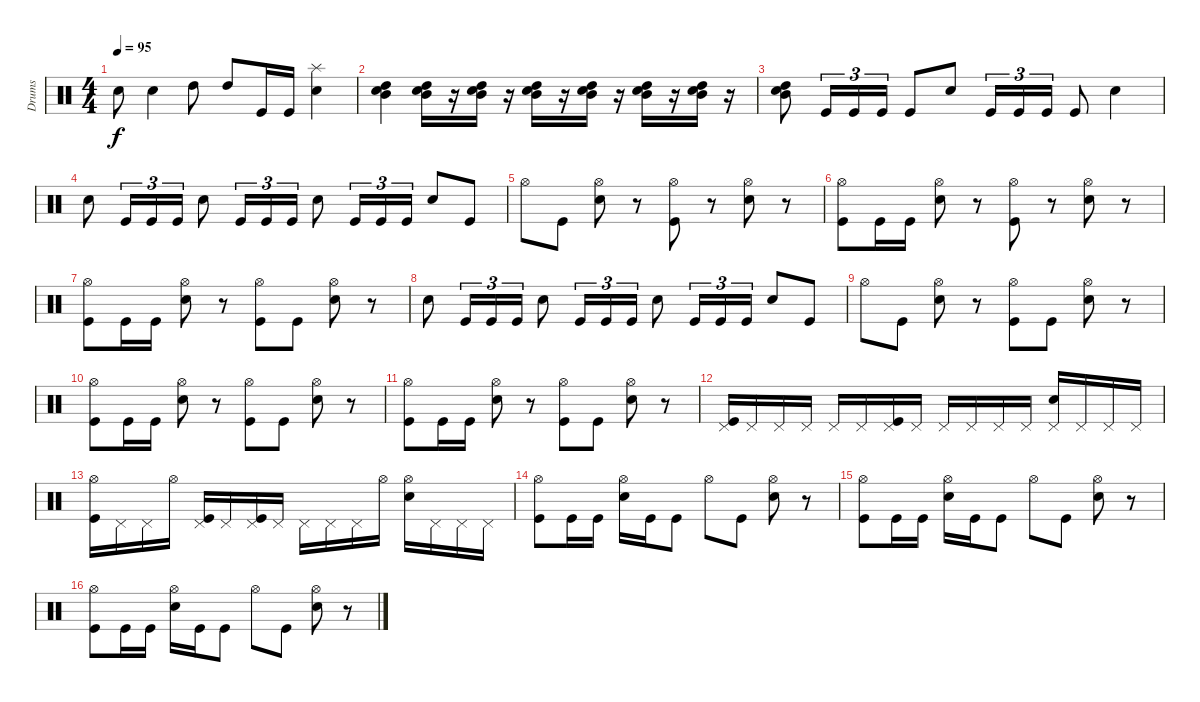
\track ("Drums" "Drums") {instrument percussion}
\staff {score}
\articulation defaults
\ts (4 4)
\tempo 95
\clef neutral
\ks c "Snare (hit) 2".8{dy f} "Snare (hit) 2".4 "High Tom (hit)".8 "High Tom (hit)".8 "Kick (hit)".16 "Kick (hit)".16
("Snare (hit) 2" "Splash (hit)").4 |
("Snare (hit) 2" "High Tom (hit)" "Mid Tom (hit)").4 ("Snare (hit) 2" "High Tom (hit)" "Mid Tom (hit)").16 r.16 ("Snare (hit) 2" "High Tom (hit)" "Mid Tom (hit)").16 r.16 ("Snare (hit) 2" "High Tom (hit)" "Mid Tom (hit)").16 r.16 ("Snare (hit) 2" "High Tom (hit)" "Mid Tom (hit)").16 r.16 ("Snare (hit) 2" "High Tom (hit)" "Mid Tom (hit)").16 r.16 ("Snare (hit) 2" "High Tom (hit)" "Mid Tom (hit)").16 r.16 |
("Snare (hit) 2" "High Tom (hit)" "Mid Tom (hit)").8 "Kick (hit)".16{tu (3 2)} "Kick (hit)".16{tu (3 2)} "Kick (hit)".16{tu (3 2)} "Kick (hit)".8 "Snare (hit) 2".8 "Kick (hit)".16{tu (3 2)} "Kick (hit)".16{tu (3 2)} "Kick (hit)".16{tu (3 2)} "Kick (hit)".8 "Snare (hit) 2".4 |
"Snare (hit) 2".8 "Kick (hit)".16{tu (3 2)} "Kick (hit)".16{tu (3 2)} "Kick (hit)".16{tu (3 2)} "Snare (hit) 2".8 "Kick (hit)".16{tu (3 2)} "Kick (hit)".16{tu (3 2)} "Kick (hit)".16{tu (3 2)} "Snare (hit) 2".8 "Kick (hit)".16{tu (3 2)} "Kick (hit)".16{tu (3 2)} "Kick (hit)".16{tu (3 2)} "Snare (hit) 2".8 "Kick (hit)".8 |
"Hi-Hat (open)".8 "Kick (hit)".8 ("Snare (hit) 2" "Hi-Hat (open)").8 r.8 ("Kick (hit)" "Hi-Hat (open)").8 r.8 ("Snare (hit) 2" "Hi-Hat (open)").8 r.8 |
("Kick (hit)" "Hi-Hat (open)").8 "Kick (hit)".16 "Kick (hit)".16 ("Snare (hit) 2" "Hi-Hat (open)").8 r.8 ("Kick (hit)" "Hi-Hat (open)").8 r.8 ("Snare (hit) 2" "Hi-Hat (open)").8 r.8 |
("Kick (hit)" "Hi-Hat (open)").8 "Kick (hit)".16 "Kick (hit)".16 ("Snare (hit) 2" "Hi-Hat (open)").8 r.8 ("Kick (hit)" "Hi-Hat (open)").8 "Kick (hit)".8 ("Snare (hit) 2" "Hi-Hat (open)").8 r.8 |
"Snare (hit) 2".8 "Kick (hit)".16{tu (3 2)} "Kick (hit)".16{tu (3 2)} "Kick (hit)".16{tu (3 2)} "Snare (hit) 2".8 "Kick (hit)".16{tu (3 2)} "Kick (hit)".16{tu (3 2)} "Kick (hit)".16{tu (3 2)} "Snare (hit) 2".8 "Kick (hit)".16{tu (3 2)} "Kick (hit)".16{tu (3 2)} "Kick (hit)".16{tu (3 2)} "Snare (hit) 2".8 "Kick (hit)".8 |
"Hi-Hat (open)".8 "Kick (hit)".8 ("Snare (hit) 2" "Hi-Hat (open)").8 r.8 ("Kick (hit)" "Hi-Hat (open)").8 "Kick (hit)".8 ("Snare (hit) 2" "Hi-Hat (open)").8 r.8 |
("Kick (hit)" "Hi-Hat (open)").8 "Kick (hit)".16 "Kick (hit)".16 ("Snare (hit) 2" "Hi-Hat (open)").8 r.8 ("Kick (hit)" "Hi-Hat (open)").8 "Kick (hit)".8 ("Snare (hit) 2" "Hi-Hat (open)").8 r.8 |
("Kick (hit)" "Hi-Hat (open)").8 "Kick (hit)".16 "Kick (hit)".16 ("Snare (hit) 2" "Hi-Hat (open)").8 r.8 ("Kick (hit)" "Hi-Hat (open)").8 "Kick (hit)".8 ("Snare (hit) 2" "Hi-Hat (open)").8 r.8 |
("Kick (hit)" "Pedal Hi-Hat (hit)").16 "Pedal Hi-Hat (hit)".16 "Pedal Hi-Hat (hit)".16 "Pedal Hi-Hat (hit)".16 "Pedal Hi-Hat (hit)".16 "Pedal Hi-Hat (hit)".16 ("Kick (hit)" "Pedal Hi-Hat (hit)").16 "Pedal Hi-Hat (hit)".16 "Pedal Hi-Hat (hit)".16 "Pedal Hi-Hat (hit)".16 "Pedal Hi-Hat (hit)".16 "Pedal Hi-Hat (hit)".16 ("Snare (hit) 2" "Pedal Hi-Hat (hit)").16 "Pedal Hi-Hat (hit)".16 "Pedal Hi-Hat (hit)".16 "Pedal Hi-Hat (hit)".16 |
("Kick (hit)" "Hi-Hat (open)").16 "Pedal Hi-Hat (hit)".16 "Pedal Hi-Hat (hit)".16 "Hi-Hat (open)".16 ("Kick (hit)" "Pedal Hi-Hat (hit)").16 "Pedal Hi-Hat (hit)".16 ("Kick (hit)" "Pedal Hi-Hat (hit)").16 "Pedal Hi-Hat (hit)".16 "Pedal Hi-Hat (hit)".16 "Pedal Hi-Hat (hit)".16 "Pedal Hi-Hat (hit)".16 "Hi-Hat (open)".16 ("Snare (hit) 2" "Hi-Hat (open)").16 "Pedal Hi-Hat (hit)".16 "Pedal Hi-Hat (hit)".16 "Pedal Hi-Hat (hit)".16 |
("Kick (hit)" "Hi-Hat (open)").8 "Kick (hit)".16 "Kick (hit)".16 ("Snare (hit) 2" "Hi-Hat (open)").16 "Kick (hit)".16 "Kick (hit)".8 "Hi-Hat (open)".8 "Kick (hit)".8 ("Snare (hit) 2" "Hi-Hat (open)").8 r.8 |
("Kick (hit)" "Hi-Hat (open)").8 "Kick (hit)".16 "Kick (hit)".16 ("Snare (hit) 2" "Hi-Hat (open)").16 "Kick (hit)".16 "Kick (hit)".8 "Hi-Hat (open)".8 "Kick (hit)".8 ("Snare (hit) 2" "Hi-Hat (open)").8 r.8 |
("Kick (hit)" "Hi-Hat (open)").8 "Kick (hit)".16 "Kick (hit)".16 ("Snare (hit) 2" "Hi-Hat (open)").16 "Kick (hit)".16 "Kick (hit)".8 "Hi-Hat (open)".8 "Kick (hit)".8 ("Snare (hit) 2" "Hi-Hat (open)").8 r.8
